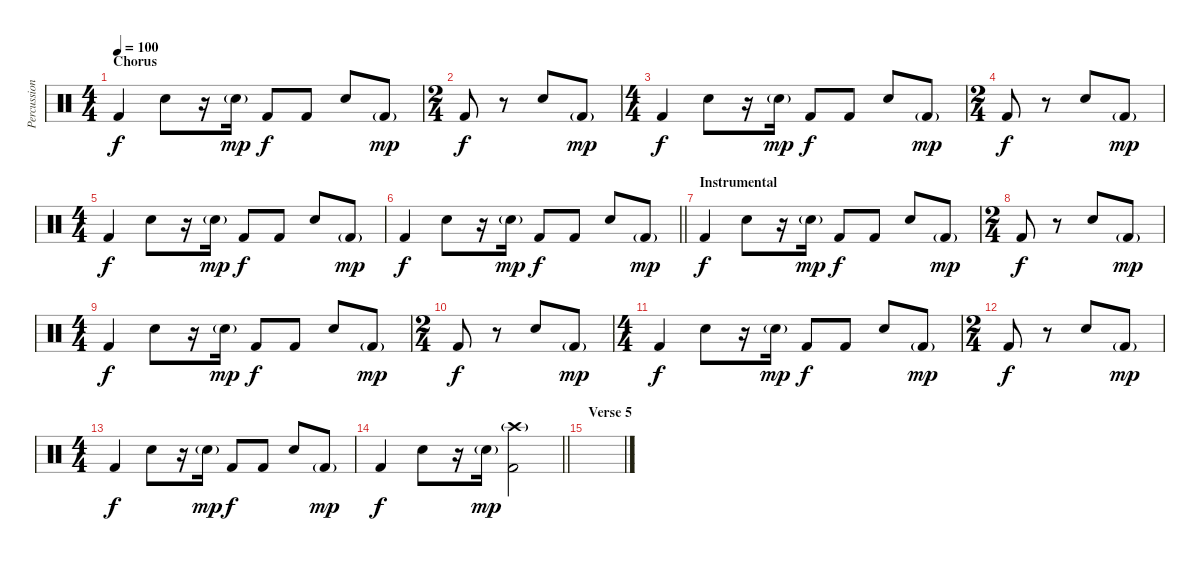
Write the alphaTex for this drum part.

\track ("Percussion" "Percussion") {instrument percussion}
\staff {score}
\articulation defaults
\ts (4 4)
\section ("" "Chorus")
\tempo 100
\clef neutral
\ks c "Kick (hit) 2".4{dy f} "Snare (hit) 2".8
r.16 "Snare (hit) 2"{g}.16{dy mp} "Kick (hit) 2".8{dy f} "Kick (hit) 2".8 "Snare (hit) 2".8 "Kick (hit) 2"{g}.8{dy mp} |
\ts (2 4)
"Kick (hit) 2".8{dy f} r.8 "Snare (hit) 2".8 "Kick (hit) 2"{g}.8{dy mp} |
\ts (4 4)
"Kick (hit) 2".4{dy f} "Snare (hit) 2".8 r.16 "Snare (hit) 2"{g}.16{dy mp} "Kick (hit) 2".8{dy f} "Kick (hit) 2".8 "Snare (hit) 2".8 "Kick (hit) 2"{g}.8{dy mp} |
\ts (2 4)
"Kick (hit) 2".8{dy f} r.8 "Snare (hit) 2".8 "Kick (hit) 2"{g}.8{dy mp} |
\ts (4 4)
"Kick (hit) 2".4{dy f} "Snare (hit) 2".8 r.16 "Snare (hit) 2"{g}.16{dy mp} "Kick (hit) 2".8{dy f} "Kick (hit) 2".8 "Snare (hit) 2".8 "Kick (hit) 2"{g}.8{dy mp} |
\barLineRight lightlight "Kick (hit) 2".4{dy f} "Snare (hit) 2".8
r.16 "Snare (hit) 2"{g}.16{dy mp} "Kick (hit) 2".8{dy f} "Kick (hit) 2".8 "Snare (hit) 2".8 "Kick (hit) 2"{g}.8{dy mp} |
\section ("" "Instrumental")
"Kick (hit) 2".4{dy f} "Snare (hit) 2".8 r.16 "Snare (hit) 2"{g}.16{dy mp} "Kick (hit) 2".8{dy f} "Kick (hit) 2".8 "Snare (hit) 2".8 "Kick (hit) 2"{g}.8{dy mp} |
\ts (2 4)
"Kick (hit) 2".8{dy f} r.8 "Snare (hit) 2".8 "Kick (hit) 2"{g}.8{dy mp} |
\ts (4 4)
"Kick (hit) 2".4{dy f} "Snare (hit) 2".8 r.16 "Snare (hit) 2"{g}.16{dy mp} "Kick (hit) 2".8{dy f} "Kick (hit) 2".8 "Snare (hit) 2".8 "Kick (hit) 2"{g}.8{dy mp} |
\ts (2 4)
"Kick (hit) 2".8{dy f} r.8 "Snare (hit) 2".8 "Kick (hit) 2"{g}.8{dy mp} |
\ts (4 4)
"Kick (hit) 2".4{dy f} "Snare (hit) 2".8 r.16 "Snare (hit) 2"{g}.16{dy mp} "Kick (hit) 2".8{dy f} "Kick (hit) 2".8 "Snare (hit) 2".8 "Kick (hit) 2"{g}.8{dy mp} |
\ts (2 4)
"Kick (hit) 2".8{dy f} r.8 "Snare (hit) 2".8 "Kick (hit) 2"{g}.8{dy mp} |
\ts (4 4)
"Kick (hit) 2".4{dy f} "Snare (hit) 2".8 r.16 "Snare (hit) 2"{g}.16{dy mp} "Kick (hit) 2".8{dy f} "Kick (hit) 2".8 "Snare (hit) 2".8 "Kick (hit) 2"{g}.8{dy mp} |
\barLineRight lightlight "Kick (hit) 2".4{dy f} "Snare (hit) 2".8
r.16 "Snare (hit) 2"{g}.16{dy mp} ("Crash high (hit)"{g} "Kick (hit) 2").2 |
\section ("" "Verse 5")
